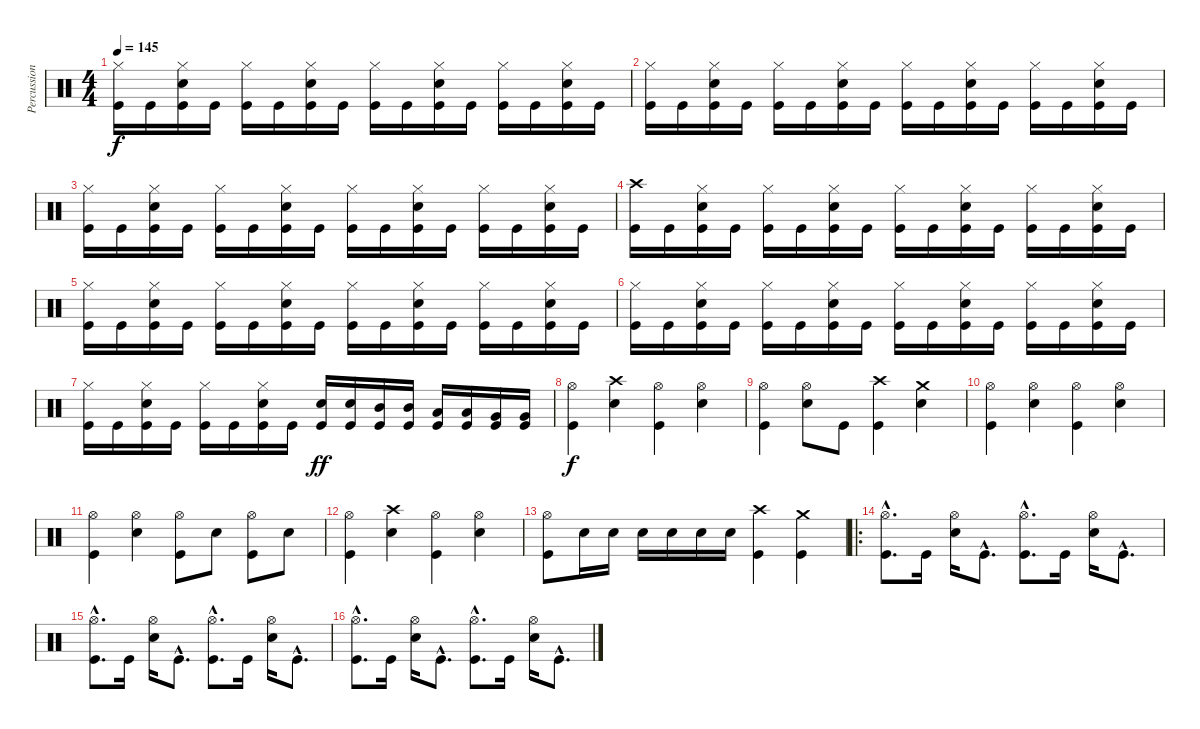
\track ("Percussions" "Percussion") {instrument percussion}
\staff {score}
\articulation defaults
\ts (4 4)
\tempo 145
\clef neutral
\ks c
("Hi-Hat (closed)" "Kick (hit)").16{dy f} "Kick (hit)".16 ("Hi-Hat (closed)" "Snare (hit) 2" "Kick (hit)").16 "Kick (hit)".16 ("Hi-Hat (closed)" "Kick (hit)").16 "Kick (hit)".16 ("Hi-Hat (closed)" "Snare (hit) 2" "Kick (hit)").16 "Kick (hit)".16 ("Hi-Hat (closed)" "Kick (hit)").16 "Kick (hit)".16 ("Hi-Hat (closed)" "Snare (hit) 2" "Kick (hit)").16 "Kick (hit)".16 ("Hi-Hat (closed)" "Kick (hit)").16 "Kick (hit)".16 ("Hi-Hat (closed)" "Snare (hit) 2" "Kick (hit)").16 "Kick (hit)".16 |
("Hi-Hat (closed)" "Kick (hit)").16 "Kick (hit)".16 ("Hi-Hat (closed)" "Snare (hit) 2" "Kick (hit)").16 "Kick (hit)".16 ("Hi-Hat (closed)" "Kick (hit)").16 "Kick (hit)".16 ("Hi-Hat (closed)" "Snare (hit) 2" "Kick (hit)").16 "Kick (hit)".16 ("Hi-Hat (closed)" "Kick (hit)").16 "Kick (hit)".16 ("Hi-Hat (closed)" "Snare (hit) 2" "Kick (hit)").16 "Kick (hit)".16 ("Hi-Hat (closed)" "Kick (hit)").16 "Kick (hit)".16 ("Hi-Hat (closed)" "Snare (hit) 2" "Kick (hit)").16 "Kick (hit)".16 |
("Hi-Hat (closed)" "Kick (hit)").16 "Kick (hit)".16 ("Hi-Hat (closed)" "Snare (hit) 2" "Kick (hit)").16 "Kick (hit)".16 ("Hi-Hat (closed)" "Kick (hit)").16 "Kick (hit)".16 ("Hi-Hat (closed)" "Snare (hit) 2" "Kick (hit)").16 "Kick (hit)".16 ("Hi-Hat (closed)" "Kick (hit)").16 "Kick (hit)".16 ("Hi-Hat (closed)" "Snare (hit) 2" "Kick (hit)").16 "Kick (hit)".16 ("Hi-Hat (closed)" "Kick (hit)").16 "Kick (hit)".16 ("Hi-Hat (closed)" "Snare (hit) 2" "Kick (hit)").16 "Kick (hit)".16 |
("Crash high (hit)" "Kick (hit)").16 "Kick (hit)".16 ("Hi-Hat (closed)" "Snare (hit) 2" "Kick (hit)").16 "Kick (hit)".16 ("Hi-Hat (closed)" "Kick (hit)").16 "Kick (hit)".16 ("Hi-Hat (closed)" "Snare (hit) 2" "Kick (hit)").16 "Kick (hit)".16 ("Hi-Hat (closed)" "Kick (hit)").16 "Kick (hit)".16 ("Hi-Hat (closed)" "Snare (hit) 2" "Kick (hit)").16 "Kick (hit)".16 ("Hi-Hat (closed)" "Kick (hit)").16 "Kick (hit)".16 ("Hi-Hat (closed)" "Snare (hit) 2" "Kick (hit)").16 "Kick (hit)".16 |
("Hi-Hat (closed)" "Kick (hit)").16 "Kick (hit)".16 ("Hi-Hat (closed)" "Snare (hit) 2" "Kick (hit)").16 "Kick (hit)".16 ("Hi-Hat (closed)" "Kick (hit)").16 "Kick (hit)".16 ("Hi-Hat (closed)" "Snare (hit) 2" "Kick (hit)").16 "Kick (hit)".16 ("Hi-Hat (closed)" "Kick (hit)").16 "Kick (hit)".16 ("Hi-Hat (closed)" "Snare (hit) 2" "Kick (hit)").16 "Kick (hit)".16 ("Hi-Hat (closed)" "Kick (hit)").16 "Kick (hit)".16 ("Hi-Hat (closed)" "Snare (hit) 2" "Kick (hit)").16 "Kick (hit)".16 |
("Hi-Hat (closed)" "Kick (hit)").16 "Kick (hit)".16 ("Hi-Hat (closed)" "Snare (hit) 2" "Kick (hit)").16 "Kick (hit)".16 ("Hi-Hat (closed)" "Kick (hit)").16 "Kick (hit)".16 ("Hi-Hat (closed)" "Snare (hit) 2" "Kick (hit)").16 "Kick (hit)".16 ("Hi-Hat (closed)" "Kick (hit)").16 "Kick (hit)".16 ("Hi-Hat (closed)" "Snare (hit) 2" "Kick (hit)").16 "Kick (hit)".16 ("Hi-Hat (closed)" "Kick (hit)").16 "Kick (hit)".16 ("Hi-Hat (closed)" "Snare (hit) 2" "Kick (hit)").16 "Kick (hit)".16 |
("Hi-Hat (closed)" "Kick (hit)").16 "Kick (hit)".16 ("Hi-Hat (closed)" "Snare (hit) 2" "Kick (hit)").16 "Kick (hit)".16 ("Hi-Hat (closed)" "Kick (hit)").16 "Kick (hit)".16 ("Hi-Hat (closed)" "Snare (hit) 2" "Kick (hit)").16 "Kick (hit)".16 ("Snare (hit) 2" "Kick (hit)").16{dy ff} ("Snare (hit) 2" "Kick (hit)").16 ("Mid Tom (hit)" "Kick (hit)").16 ("Mid Tom (hit)" "Kick (hit)").16 ("Low Tom (hit)" "Kick (hit)").16 ("Low Tom (hit)" "Kick (hit)").16 ("Very Low Tom (hit)" "Kick (hit)").16 ("Very Low Tom (hit)" "Kick (hit)").16 |
("Hi-Hat (open)" "Kick (hit)").4{dy f} ("Crash high (hit)" "Snare (hit) 2").4 ("Hi-Hat (open)" "Kick (hit)").4 ("Hi-Hat (open)" "Snare (hit) 2").4 |
("Hi-Hat (open)" "Kick (hit)").4 ("Hi-Hat (open)" "Snare (hit) 2").8 "Kick (hit)".8 ("Crash high (hit)" "Kick (hit)").4 ("Crash medium (hit)" "Snare (hit) 2").4 |
("Hi-Hat (open)" "Kick (hit)").4 ("Hi-Hat (open)" "Snare (hit) 2").4 ("Hi-Hat (open)" "Kick (hit)").4 ("Hi-Hat (open)" "Snare (hit) 2").4 |
("Hi-Hat (open)" "Kick (hit)").4 ("Hi-Hat (open)" "Snare (hit) 2").4 ("Hi-Hat (open)" "Kick (hit)").8 "Snare (hit) 2".8 ("Hi-Hat (open)" "Kick (hit)").8 "Snare (hit) 2".8 |
("Hi-Hat (open)" "Kick (hit)").4 ("Crash high (hit)" "Snare (hit) 2").4 ("Hi-Hat (open)" "Kick (hit)").4 ("Hi-Hat (open)" "Snare (hit) 2").4 |
("Hi-Hat (open)" "Kick (hit)").8 "Snare (hit) 2".16 "Snare (hit) 2".16 "Snare (hit) 2".16 "Snare (hit) 2".16 "Snare (hit) 2".16 "Snare (hit) 2".16 ("Crash high (hit)" "Kick (hit)").4 ("Crash medium (hit)" "Kick (hit)").4 |
\ro
("Hi-Hat (open)"{hac} "Kick (hit)"{hac}).8{d} "Kick (hit)".16 ("Hi-Hat (open)" "Snare (hit) 2").16 "Kick (hit)"{hac}.8{d} ("Hi-Hat (open)"{hac} "Kick (hit)"{hac}).8{d} "Kick (hit)".16 ("Hi-Hat (open)" "Snare (hit) 2").16 "Kick (hit)"{hac}.8{d} |
("Hi-Hat (open)"{hac} "Kick (hit)"{hac}).8{d} "Kick (hit)".16 ("Hi-Hat (open)" "Snare (hit) 2").16 "Kick (hit)"{hac}.8{d} ("Hi-Hat (open)"{hac} "Kick (hit)"{hac}).8{d} "Kick (hit)".16 ("Hi-Hat (open)" "Snare (hit) 2").16 "Kick (hit)"{hac}.8{d} |
("Hi-Hat (open)"{hac} "Kick (hit)"{hac}).8{d} "Kick (hit)".16 ("Hi-Hat (open)" "Snare (hit) 2").16 "Kick (hit)"{hac}.8{d} ("Hi-Hat (open)"{hac} "Kick (hit)"{hac}).8{d} "Kick (hit)".16 ("Hi-Hat (open)" "Snare (hit) 2").16 "Kick (hit)"{hac}.8{d}
